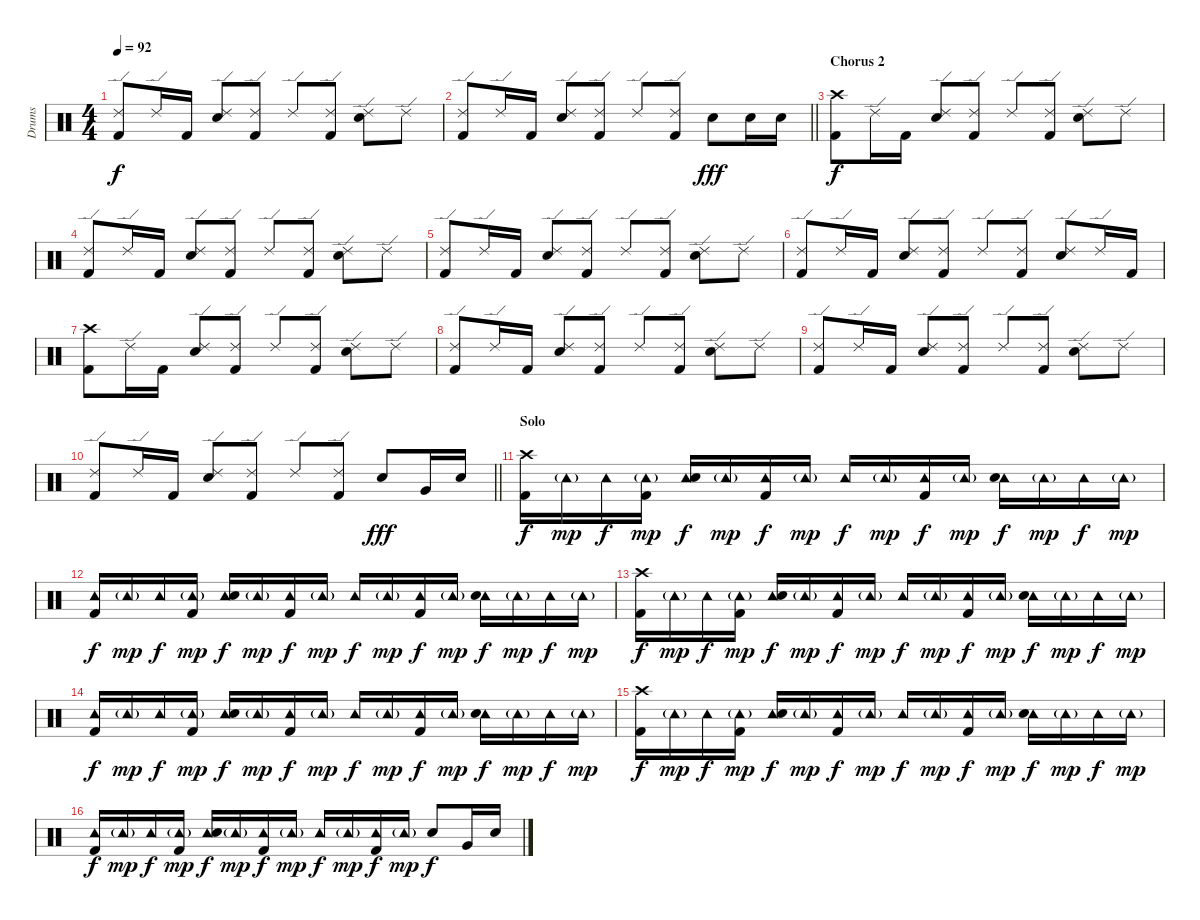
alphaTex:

\track ("Drums" "Drums") {instrument percussion}
\staff {score}
\articulation defaults
\ts (4 4)
\tempo 92
\clef neutral
\ks c
("Ride (edge) 2" "Kick (hit) 2").8{dy f} "Ride (edge) 2".16 "Kick (hit) 2".16 ("Ride (edge) 2" "Electric Snare (hit)").8 ("Ride (edge) 2" "Kick (hit) 2").8 "Ride (edge) 2".8 ("Ride (edge) 2" "Kick (hit) 2").8 ("Ride (edge) 2" "Electric Snare (hit)").8 "Ride (edge) 2".8 |
\barLineRight lightlight
("Ride (edge) 2" "Kick (hit) 2").8 "Ride (edge) 2".16 "Kick (hit) 2".16 ("Ride (edge) 2" "Electric Snare (hit)").8 ("Ride (edge) 2" "Kick (hit) 2").8 "Ride (edge) 2".8 ("Ride (edge) 2" "Kick (hit) 2").8 "Electric Snare (hit)".8{dy fff} "Electric Snare (hit)".16 "Electric Snare (hit)".16 |
\section ("" "Chorus 2")
("Crash high (hit)" "Kick (hit) 2").8{dy f} "Ride (edge) 2".16 "Kick (hit) 2".16 ("Ride (edge) 2" "Electric Snare (hit)").8 ("Ride (edge) 2" "Kick (hit) 2").8 "Ride (edge) 2".8 ("Ride (edge) 2" "Kick (hit) 2").8 ("Ride (edge) 2" "Electric Snare (hit)").8 "Ride (edge) 2".8 |
("Ride (edge) 2" "Kick (hit) 2").8 "Ride (edge) 2".16 "Kick (hit) 2".16 ("Ride (edge) 2" "Electric Snare (hit)").8 ("Ride (edge) 2" "Kick (hit) 2").8 "Ride (edge) 2".8 ("Ride (edge) 2" "Kick (hit) 2").8 ("Ride (edge) 2" "Electric Snare (hit)").8 "Ride (edge) 2".8 |
("Ride (edge) 2" "Kick (hit) 2").8 "Ride (edge) 2".16 "Kick (hit) 2".16 ("Ride (edge) 2" "Electric Snare (hit)").8 ("Ride (edge) 2" "Kick (hit) 2").8 "Ride (edge) 2".8 ("Ride (edge) 2" "Kick (hit) 2").8 ("Ride (edge) 2" "Electric Snare (hit)").8 "Ride (edge) 2".8 |
("Ride (edge) 2" "Kick (hit) 2").8 "Ride (edge) 2".16 "Kick (hit) 2".16 ("Ride (edge) 2" "Electric Snare (hit)").8 ("Ride (edge) 2" "Kick (hit) 2").8 "Ride (edge) 2".8 ("Ride (edge) 2" "Kick (hit) 2").8 ("Ride (edge) 2" "Electric Snare (hit)").8 "Ride (edge) 2".16 "Kick (hit) 2".16 |
("Crash high (hit)" "Kick (hit) 2").8 "Ride (edge) 2".16 "Kick (hit) 2".16 ("Ride (edge) 2" "Electric Snare (hit)").8 ("Ride (edge) 2" "Kick (hit) 2").8 "Ride (edge) 2".8 ("Ride (edge) 2" "Kick (hit) 2").8 ("Ride (edge) 2" "Electric Snare (hit)").8 "Ride (edge) 2".8 |
("Ride (edge) 2" "Kick (hit) 2").8 "Ride (edge) 2".16 "Kick (hit) 2".16 ("Ride (edge) 2" "Electric Snare (hit)").8 ("Ride (edge) 2" "Kick (hit) 2").8 "Ride (edge) 2".8 ("Ride (edge) 2" "Kick (hit) 2").8 ("Ride (edge) 2" "Electric Snare (hit)").8 "Ride (edge) 2".8 |
("Ride (edge) 2" "Kick (hit) 2").8 "Ride (edge) 2".16 "Kick (hit) 2".16 ("Ride (edge) 2" "Electric Snare (hit)").8 ("Ride (edge) 2" "Kick (hit) 2").8 "Ride (edge) 2".8 ("Ride (edge) 2" "Kick (hit) 2").8 ("Ride (edge) 2" "Electric Snare (hit)").8 "Ride (edge) 2".8 |
\barLineRight lightlight
("Ride (edge) 2" "Kick (hit) 2").8 "Ride (edge) 2".16 "Kick (hit) 2".16 ("Ride (edge) 2" "Electric Snare (hit)").8 ("Ride (edge) 2" "Kick (hit) 2").8 "Ride (edge) 2".8 ("Ride (edge) 2" "Kick (hit) 2").8 "Electric Snare (hit)".8{dy fff} "Very Low Tom (hit)".16 "Electric Snare (hit)".16 |
\section ("" "Solo")
("Crash high (hit)" "Kick (hit) 2").16{dy f} "Tambourine (hit)"{g}.16{dy mp} "Tambourine (hit)".16{dy f} ("Tambourine (hit)"{g} "Kick (hit) 2").16{dy mp} ("Tambourine (hit)" "Electric Snare (hit)").16{dy f} "Tambourine (hit)"{g}.16{dy mp} ("Tambourine (hit)" "Kick (hit) 2").16{dy f} "Tambourine (hit)"{g}.16{dy mp} "Tambourine (hit)".16{dy f} "Tambourine (hit)"{g}.16{dy mp} ("Tambourine (hit)" "Kick (hit) 2").16{dy f} "Tambourine (hit)"{g}.16{dy mp} ("Tambourine (hit)" "Electric Snare (hit)").16{dy f} "Tambourine (hit)"{g}.16{dy mp} "Tambourine (hit)".16{dy f} "Tambourine (hit)"{g}.16{dy mp} |
("Tambourine (hit)" "Kick (hit) 2").16{dy f} "Tambourine (hit)"{g}.16{dy mp} "Tambourine (hit)".16{dy f} ("Tambourine (hit)"{g} "Kick (hit) 2").16{dy mp} ("Tambourine (hit)" "Electric Snare (hit)").16{dy f} "Tambourine (hit)"{g}.16{dy mp} ("Tambourine (hit)" "Kick (hit) 2").16{dy f} "Tambourine (hit)"{g}.16{dy mp} "Tambourine (hit)".16{dy f} "Tambourine (hit)"{g}.16{dy mp} ("Tambourine (hit)" "Kick (hit) 2").16{dy f} "Tambourine (hit)"{g}.16{dy mp} ("Tambourine (hit)" "Electric Snare (hit)").16{dy f} "Tambourine (hit)"{g}.16{dy mp} "Tambourine (hit)".16{dy f} "Tambourine (hit)"{g}.16{dy mp} |
("Crash high (hit)" "Kick (hit) 2").16{dy f} "Tambourine (hit)"{g}.16{dy mp} "Tambourine (hit)".16{dy f} ("Tambourine (hit)"{g} "Kick (hit) 2").16{dy mp} ("Tambourine (hit)" "Electric Snare (hit)").16{dy f} "Tambourine (hit)"{g}.16{dy mp} ("Tambourine (hit)" "Kick (hit) 2").16{dy f} "Tambourine (hit)"{g}.16{dy mp} "Tambourine (hit)".16{dy f} "Tambourine (hit)"{g}.16{dy mp} ("Tambourine (hit)" "Kick (hit) 2").16{dy f} "Tambourine (hit)"{g}.16{dy mp} ("Tambourine (hit)" "Electric Snare (hit)").16{dy f} "Tambourine (hit)"{g}.16{dy mp} "Tambourine (hit)".16{dy f} "Tambourine (hit)"{g}.16{dy mp} |
("Tambourine (hit)" "Kick (hit) 2").16{dy f} "Tambourine (hit)"{g}.16{dy mp} "Tambourine (hit)".16{dy f} ("Tambourine (hit)"{g} "Kick (hit) 2").16{dy mp} ("Tambourine (hit)" "Electric Snare (hit)").16{dy f} "Tambourine (hit)"{g}.16{dy mp} ("Tambourine (hit)" "Kick (hit) 2").16{dy f} "Tambourine (hit)"{g}.16{dy mp} "Tambourine (hit)".16{dy f} "Tambourine (hit)"{g}.16{dy mp} ("Tambourine (hit)" "Kick (hit) 2").16{dy f} "Tambourine (hit)"{g}.16{dy mp} ("Tambourine (hit)" "Electric Snare (hit)").16{dy f} "Tambourine (hit)"{g}.16{dy mp} "Tambourine (hit)".16{dy f} "Tambourine (hit)"{g}.16{dy mp} |
("Crash high (hit)" "Kick (hit) 2").16{dy f} "Tambourine (hit)"{g}.16{dy mp} "Tambourine (hit)".16{dy f} ("Tambourine (hit)"{g} "Kick (hit) 2").16{dy mp} ("Tambourine (hit)" "Electric Snare (hit)").16{dy f} "Tambourine (hit)"{g}.16{dy mp} ("Tambourine (hit)" "Kick (hit) 2").16{dy f} "Tambourine (hit)"{g}.16{dy mp} "Tambourine (hit)".16{dy f} "Tambourine (hit)"{g}.16{dy mp} ("Tambourine (hit)" "Kick (hit) 2").16{dy f} "Tambourine (hit)"{g}.16{dy mp} ("Tambourine (hit)" "Electric Snare (hit)").16{dy f} "Tambourine (hit)"{g}.16{dy mp} "Tambourine (hit)".16{dy f} "Tambourine (hit)"{g}.16{dy mp} |
("Tambourine (hit)" "Kick (hit) 2").16{dy f} "Tambourine (hit)"{g}.16{dy mp} "Tambourine (hit)".16{dy f} ("Tambourine (hit)"{g} "Kick (hit) 2").16{dy mp} ("Tambourine (hit)" "Electric Snare (hit)").16{dy f} "Tambourine (hit)"{g}.16{dy mp} ("Tambourine (hit)" "Kick (hit) 2").16{dy f} "Tambourine (hit)"{g}.16{dy mp} "Tambourine (hit)".16{dy f} "Tambourine (hit)"{g}.16{dy mp} ("Tambourine (hit)" "Kick (hit) 2").16{dy f} "Tambourine (hit)"{g}.16{dy mp} "Electric Snare (hit)".8{dy f} "Very Low Tom (hit)".16 "Electric Snare (hit)".16
